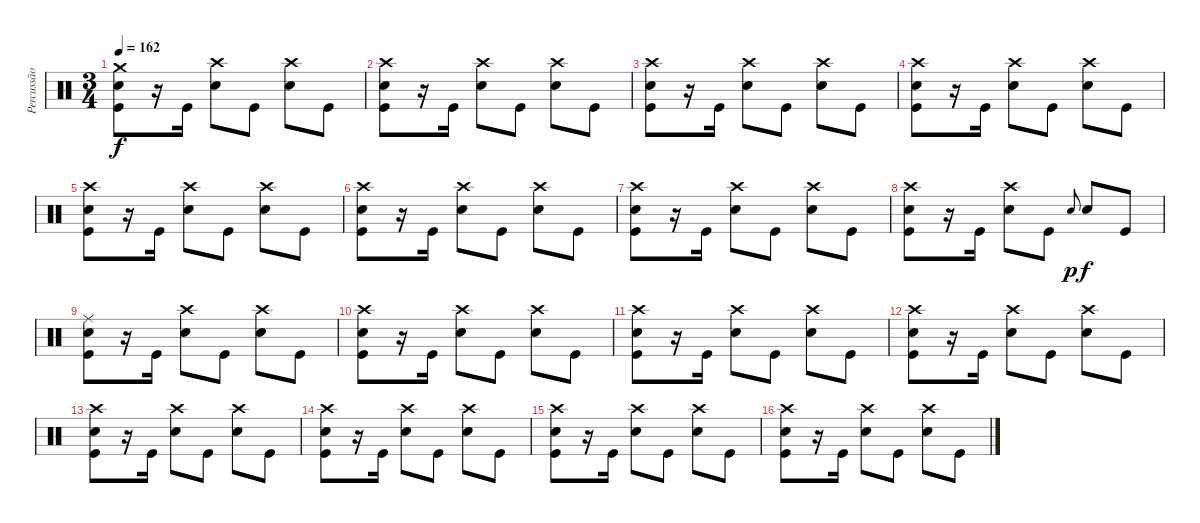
\track ("Percussão" "Percussão") {instrument percussion}
\staff {score}
\articulation defaults
\ts (3 4)
\tempo 162
\clef neutral
\ks c
("Crash medium (hit)" "Snare (hit) 2" "Kick (hit)").8{dy f} r.16 "Kick (hit)".16 ("Crash high (hit)" "Snare (hit) 2").8 "Kick (hit)".8 ("Crash high (hit)" "Snare (hit) 2").8 "Kick (hit)".8 |
("Crash high (hit)" "Snare (hit) 2" "Kick (hit)").8 r.16 "Kick (hit)".16 ("Crash high (hit)" "Snare (hit) 2").8 "Kick (hit)".8 ("Crash high (hit)" "Snare (hit) 2").8 "Kick (hit)".8 |
("Crash high (hit)" "Snare (hit) 2" "Kick (hit)").8 r.16 "Kick (hit)".16 ("Crash high (hit)" "Snare (hit) 2").8 "Kick (hit)".8 ("Crash high (hit)" "Snare (hit) 2").8 "Kick (hit)".8 |
("Crash high (hit)" "Snare (hit) 2" "Kick (hit)").8 r.16 "Kick (hit)".16 ("Crash high (hit)" "Snare (hit) 2").8 "Kick (hit)".8 ("Crash high (hit)" "Snare (hit) 2").8 "Kick (hit)".8 |
("Crash high (hit)" "Snare (hit) 2" "Kick (hit)").8 r.16 "Kick (hit)".16 ("Crash high (hit)" "Snare (hit) 2").8 "Kick (hit)".8 ("Crash high (hit)" "Snare (hit) 2").8 "Kick (hit)".8 |
("Crash high (hit)" "Snare (hit) 2" "Kick (hit)").8 r.16 "Kick (hit)".16 ("Crash high (hit)" "Snare (hit) 2").8 "Kick (hit)".8 ("Crash high (hit)" "Snare (hit) 2").8 "Kick (hit)".8 |
("Crash high (hit)" "Snare (hit) 2" "Kick (hit)").8 r.16 "Kick (hit)".16 ("Crash high (hit)" "Snare (hit) 2").8 "Kick (hit)".8 ("Crash high (hit)" "Snare (hit) 2").8 "Kick (hit)".8 |
("Crash high (hit)" "Snare (hit) 2" "Kick (hit)").8 r.16 "Kick (hit)".16 ("Crash high (hit)" "Snare (hit) 2").8 "Kick (hit)".8 "Snare (hit) 2".8{gr onbeat dy p} "Snare (hit) 2".8{dy f} "Kick (hit)".8 |
("Ride (middle)" "Snare (hit) 2" "Kick (hit)").8 r.16 "Kick (hit)".16 ("Crash high (hit)" "Snare (hit) 2").8 "Kick (hit)".8 ("Crash high (hit)" "Snare (hit) 2").8 "Kick (hit)".8 |
("Crash high (hit)" "Snare (hit) 2" "Kick (hit)").8 r.16 "Kick (hit)".16 ("Crash high (hit)" "Snare (hit) 2").8 "Kick (hit)".8 ("Crash high (hit)" "Snare (hit) 2").8 "Kick (hit)".8 |
("Crash high (hit)" "Snare (hit) 2" "Kick (hit)").8 r.16 "Kick (hit)".16 ("Crash high (hit)" "Snare (hit) 2").8 "Kick (hit)".8 ("Crash high (hit)" "Snare (hit) 2").8 "Kick (hit)".8 |
("Crash high (hit)" "Snare (hit) 2" "Kick (hit)").8 r.16 "Kick (hit)".16 ("Crash high (hit)" "Snare (hit) 2").8 "Kick (hit)".8 ("Crash high (hit)" "Snare (hit) 2").8 "Kick (hit)".8 |
("Crash high (hit)" "Snare (hit) 2" "Kick (hit)").8 r.16 "Kick (hit)".16 ("Crash high (hit)" "Snare (hit) 2").8 "Kick (hit)".8 ("Crash high (hit)" "Snare (hit) 2").8 "Kick (hit)".8 |
("Crash high (hit)" "Snare (hit) 2" "Kick (hit)").8 r.16 "Kick (hit)".16 ("Crash high (hit)" "Snare (hit) 2").8 "Kick (hit)".8 ("Crash high (hit)" "Snare (hit) 2").8 "Kick (hit)".8 |
("Crash high (hit)" "Snare (hit) 2" "Kick (hit)").8 r.16 "Kick (hit)".16 ("Crash high (hit)" "Snare (hit) 2").8 "Kick (hit)".8 ("Crash high (hit)" "Snare (hit) 2").8 "Kick (hit)".8 |
("Crash high (hit)" "Snare (hit) 2" "Kick (hit)").8 r.16 "Kick (hit)".16 ("Crash high (hit)" "Snare (hit) 2").8 "Kick (hit)".8 ("Crash high (hit)" "Snare (hit) 2").8 "Kick (hit)".8
